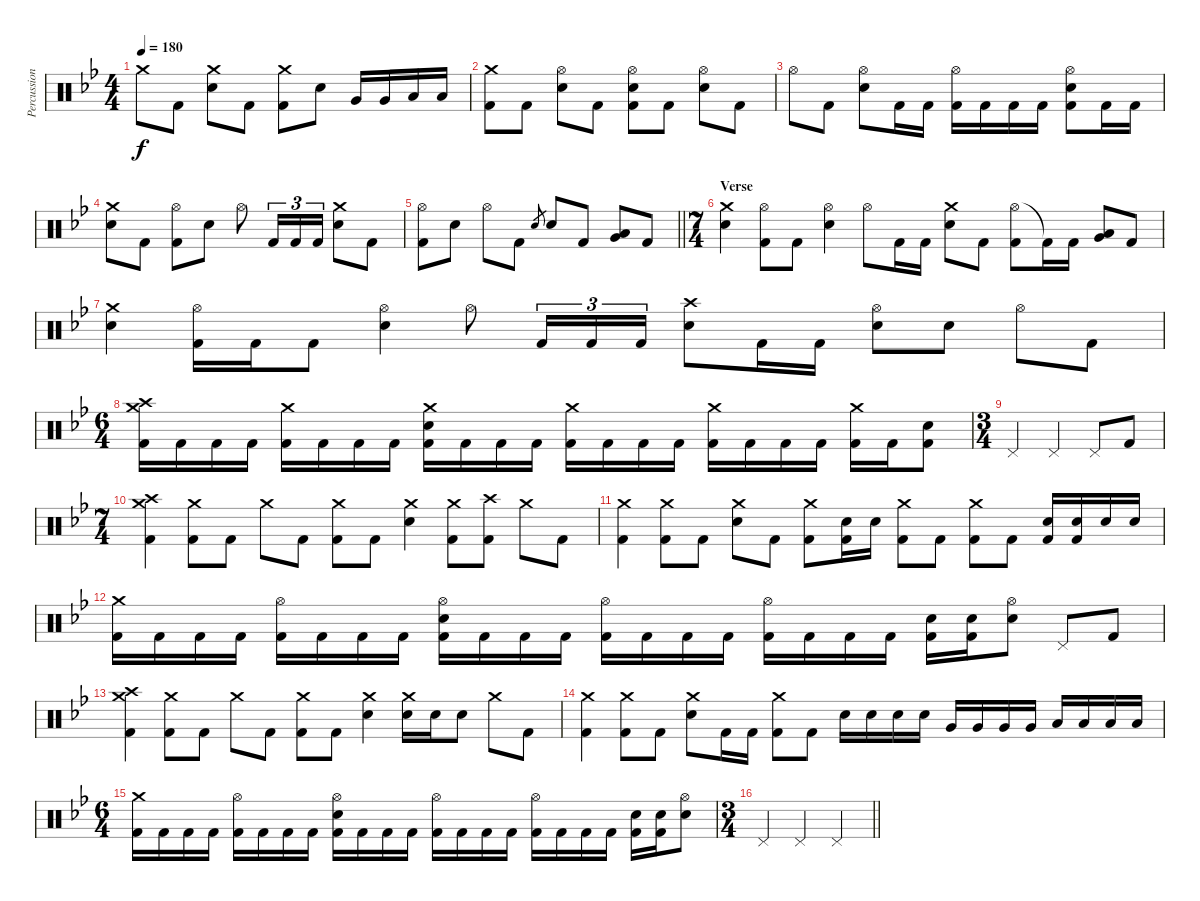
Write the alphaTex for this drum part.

\track ("Percussion" "Percussion") {instrument percussion}
\staff {score}
\articulation defaults
\ts (4 4)
\tempo 180
\clef neutral
\ks bb "Crash medium (hit)".8{dy f} "Kick (hit) 2".8
("Crash medium (hit)" "Electric Snare (hit)").8 "Kick (hit) 2".8 ("Crash medium (hit)" "Kick (hit) 2").8 "Electric Snare (hit)".8 "Very Low Tom (hit)".16 "Very Low Tom (hit)".16 "Low Floor Tom (hit)".16 "Low Floor Tom (hit)".16 |
("Crash medium (hit)" "Kick (hit) 2").8 "Kick (hit) 2".8 ("Hi-Hat (open)" "Electric Snare (hit)").8 "Kick (hit) 2".8 ("Hi-Hat (open)" "Electric Snare (hit)" "Kick (hit) 2").8 "Kick (hit) 2".8 ("Hi-Hat (open)" "Electric Snare (hit)").8 "Kick (hit) 2".8 |
"Hi-Hat (open)".8 "Kick (hit) 2".8 ("Hi-Hat (open)" "Electric Snare (hit)").8 "Kick (hit) 2".16 "Kick (hit) 2".16 ("Hi-Hat (open)" "Kick (hit) 2").16 "Kick (hit) 2".16 "Kick (hit) 2".16 "Kick (hit) 2".16 ("Hi-Hat (open)" "Electric Snare (hit)" "Kick (hit) 2").8 "Kick (hit) 2".16 "Kick (hit) 2".16 |
("Crash medium (hit)" "Electric Snare (hit)").8 "Kick (hit) 2".8 ("Hi-Hat (open)" "Kick (hit) 2").8 "Electric Snare (hit)".8 "Hi-Hat (open)".8 "Kick (hit) 2".16{tu (3 2)} "Kick (hit) 2".16{tu (3 2)} "Kick (hit) 2".16{tu (3 2)} ("Crash medium (hit)" "Electric Snare (hit)").8 "Kick (hit) 2".8 |
\barLineRight lightlight
("Hi-Hat (open)" "Kick (hit) 2").8 "Electric Snare (hit)".8 "Hi-Hat (open)".8 "Kick (hit) 2".8 "Electric Snare (hit)".8{gr} "Electric Snare (hit)".8 "Kick (hit) 2".8 ("Very Low Tom (hit)" "Low Floor Tom (hit)").8 "Kick (hit) 2".8 |
\ts (7 4)
\section ("" "Verse")
("Crash medium (hit)" "Electric Snare (hit)").4 ("Hi-Hat (open)" "Kick (hit) 2").8 "Kick (hit) 2".8 ("Hi-Hat (open)" "Electric Snare (hit)").4 "Hi-Hat (open)".8 "Kick (hit) 2".16 "Kick (hit) 2".16 ("Crash medium (hit)" "Electric Snare (hit)").8 "Kick (hit) 2".8 ("Hi-Hat (open)" "Kick (hit) 2").8 "Kick (hit) 2"{t}.16 "Kick (hit) 2".16 ("Very Low Tom (hit)" "Low Floor Tom (hit)").8 "Kick (hit) 2".8 |
("Crash medium (hit)" "Electric Snare (hit)").4 ("Hi-Hat (open)" "Kick (hit) 2").16 "Kick (hit) 2".16 "Kick (hit) 2".8 ("Hi-Hat (open)" "Electric Snare (hit)").4 "Hi-Hat (open)".8 "Kick (hit) 2".16{tu (3 2)} "Kick (hit) 2".16{tu (3 2)} "Kick (hit) 2".16{tu (3 2)} ("Crash high (hit)" "Electric Snare (hit)").8 "Kick (hit) 2".16 "Kick (hit) 2".16 ("Hi-Hat (open)" "Electric Snare (hit)").8 "Electric Snare (hit)".8 "Hi-Hat (open)".8 "Kick (hit) 2".8 |
\ts (6 4)
("Crash medium (hit)" "Crash high (hit)" "Kick (hit) 2").16 "Kick (hit) 2".16 "Kick (hit) 2".16 "Kick (hit) 2".16 ("Crash medium (hit)" "Kick (hit) 2").16 "Kick (hit) 2".16 "Kick (hit) 2".16 "Kick (hit) 2".16 ("Crash medium (hit)" "Electric Snare (hit)" "Kick (hit) 2").16 "Kick (hit) 2".16 "Kick (hit) 2".16 "Kick (hit) 2".16 ("Crash medium (hit)" "Kick (hit) 2").16 "Kick (hit) 2".16 "Kick (hit) 2".16 "Kick (hit) 2".16 ("Crash medium (hit)" "Kick (hit) 2").16 "Kick (hit) 2".16 "Kick (hit) 2".16 "Kick (hit) 2".16 ("Crash medium (hit)" "Kick (hit) 2").16 "Kick (hit) 2".16 ("Electric Snare (hit)" "Kick (hit) 2").8 |
\ts (3 4)
"Pedal Hi-Hat (hit)".4 "Pedal Hi-Hat (hit)".4 "Pedal Hi-Hat (hit)".8 "Kick (hit) 2".8 |
\ts (7 4)
("Crash medium (hit)" "Crash high (hit)" "Kick (hit) 2").4 ("Crash medium (hit)" "Kick (hit) 2").8 "Kick (hit) 2".8 "Crash medium (hit)".8 "Kick (hit) 2".8 ("Crash medium (hit)" "Kick (hit) 2").8 "Kick (hit) 2".8 ("Crash medium (hit)" "Electric Snare (hit)").4 ("Crash medium (hit)" "Kick (hit) 2").8 ("Crash high (hit)" "Kick (hit) 2").8 "Crash medium (hit)".8 "Kick (hit) 2".8 |
("Crash medium (hit)" "Kick (hit) 2").4 ("Crash medium (hit)" "Kick (hit) 2").8 "Kick (hit) 2".8 ("Crash medium (hit)" "Electric Snare (hit)").8 "Kick (hit) 2".8 ("Crash medium (hit)" "Kick (hit) 2").8 ("Electric Snare (hit)" "Kick (hit) 2").16 "Electric Snare (hit)".16 ("Crash medium (hit)" "Kick (hit) 2").8 "Kick (hit) 2".8 ("Crash medium (hit)" "Kick (hit) 2").8 "Kick (hit) 2".8 ("Electric Snare (hit)" "Kick (hit) 2").16 ("Electric Snare (hit)" "Kick (hit) 2").16 "Electric Snare (hit)".16 "Electric Snare (hit)".16 |
("Crash medium (hit)" "Kick (hit) 2").16 "Kick (hit) 2".16 "Kick (hit) 2".16 "Kick (hit) 2".16 ("Hi-Hat (open)" "Kick (hit) 2").16 "Kick (hit) 2".16 "Kick (hit) 2".16 "Kick (hit) 2".16 ("Hi-Hat (open)" "Electric Snare (hit)" "Kick (hit) 2").16 "Kick (hit) 2".16 "Kick (hit) 2".16 "Kick (hit) 2".16 ("Hi-Hat (open)" "Kick (hit) 2").16 "Kick (hit) 2".16 "Kick (hit) 2".16 "Kick (hit) 2".16 ("Hi-Hat (open)" "Kick (hit) 2").16 "Kick (hit) 2".16 "Kick (hit) 2".16 "Kick (hit) 2".16 ("Electric Snare (hit)" "Kick (hit) 2").16 ("Electric Snare (hit)" "Kick (hit) 2").16 ("Hi-Hat (open)" "Electric Snare (hit)").8 "Pedal Hi-Hat (hit)".8 "Kick (hit) 2".8 |
("Crash medium (hit)" "Crash high (hit)" "Kick (hit) 2").4 ("Crash medium (hit)" "Kick (hit) 2").8 "Kick (hit) 2".8 "Crash medium (hit)".8 "Kick (hit) 2".8 ("Crash medium (hit)" "Kick (hit) 2").8 "Kick (hit) 2".8 ("Crash medium (hit)" "Electric Snare (hit)").4 ("Crash medium (hit)" "Electric Snare (hit)").16 "Electric Snare (hit)".16 "Electric Snare (hit)".8 "Crash medium (hit)".8 "Kick (hit) 2".8 |
("Crash medium (hit)" "Kick (hit) 2").4 ("Crash medium (hit)" "Kick (hit) 2").8 "Kick (hit) 2".8 ("Crash medium (hit)" "Electric Snare (hit)").8 "Kick (hit) 2".16 "Kick (hit) 2".16 ("Crash medium (hit)" "Kick (hit) 2").8 "Kick (hit) 2".8 "Electric Snare (hit)".16 "Electric Snare (hit)".16 "Electric Snare (hit)".16 "Electric Snare (hit)".16 "Very Low Tom (hit)".16 "Very Low Tom (hit)".16 "Very Low Tom (hit)".16 "Very Low Tom (hit)".16 "Low Floor Tom (hit)".16 "Low Floor Tom (hit)".16 "Low Floor Tom (hit)".16 "Low Floor Tom (hit)".16 |
\ts (6 4)
("Crash medium (hit)" "Kick (hit) 2").16 "Kick (hit) 2".16 "Kick (hit) 2".16 "Kick (hit) 2".16 ("Hi-Hat (open)" "Kick (hit) 2").16 "Kick (hit) 2".16 "Kick (hit) 2".16 "Kick (hit) 2".16 ("Hi-Hat (open)" "Electric Snare (hit)" "Kick (hit) 2").16 "Kick (hit) 2".16 "Kick (hit) 2".16 "Kick (hit) 2".16 ("Hi-Hat (open)" "Kick (hit) 2").16 "Kick (hit) 2".16 "Kick (hit) 2".16 "Kick (hit) 2".16 ("Hi-Hat (open)" "Kick (hit) 2").16 "Kick (hit) 2".16 "Kick (hit) 2".16 "Kick (hit) 2".16 ("Electric Snare (hit)" "Kick (hit) 2").16 ("Electric Snare (hit)" "Kick (hit) 2").16 ("Hi-Hat (open)" "Electric Snare (hit)").8 |
\ts (3 4)
\barLineRight lightlight "Pedal Hi-Hat (hit)".4 "Pedal Hi-Hat (hit)".4 "Pedal Hi-Hat (hit)".4
